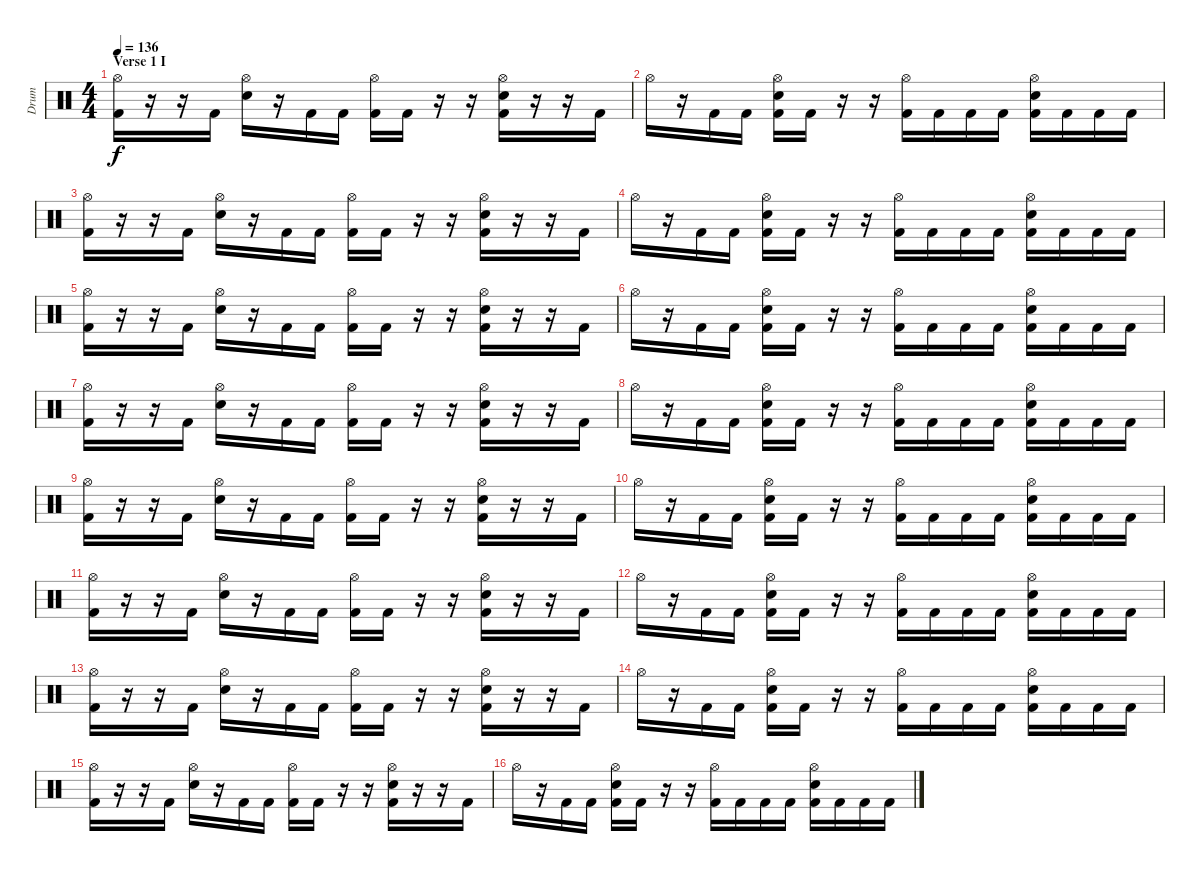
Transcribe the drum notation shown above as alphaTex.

\track ("Drum" "Drum") {instrument percussion}
\staff {score}
\articulation defaults
\ts (4 4)
\section ("" "Verse 1 I")
\tempo 136
\clef neutral
\ks c
("Hi-Hat (open)" "Kick (hit) 2").16{dy f} r.16 r.16 "Kick (hit) 2".16 ("Hi-Hat (open)" "Snare (hit) 2").16 r.16 "Kick (hit) 2".16 "Kick (hit) 2".16 ("Hi-Hat (open)" "Kick (hit) 2").16 "Kick (hit) 2".16 r.16 r.16 ("Hi-Hat (open)" "Snare (hit) 2" "Kick (hit) 2").16 r.16 r.16 "Kick (hit) 2".16 |
"Hi-Hat (open)".16 r.16 "Kick (hit) 2".16 "Kick (hit) 2".16 ("Hi-Hat (open)" "Snare (hit) 2" "Kick (hit) 2").16 "Kick (hit) 2".16 r.16 r.16 ("Hi-Hat (open)" "Kick (hit) 2").16 "Kick (hit) 2".16 "Kick (hit) 2".16 "Kick (hit) 2".16 ("Hi-Hat (open)" "Snare (hit) 2" "Kick (hit) 2").16 "Kick (hit) 2".16 "Kick (hit) 2".16 "Kick (hit) 2".16 |
("Hi-Hat (open)" "Kick (hit) 2").16 r.16 r.16 "Kick (hit) 2".16 ("Hi-Hat (open)" "Snare (hit) 2").16 r.16 "Kick (hit) 2".16 "Kick (hit) 2".16 ("Hi-Hat (open)" "Kick (hit) 2").16 "Kick (hit) 2".16 r.16 r.16 ("Hi-Hat (open)" "Snare (hit) 2" "Kick (hit) 2").16 r.16 r.16 "Kick (hit) 2".16 |
"Hi-Hat (open)".16 r.16 "Kick (hit) 2".16 "Kick (hit) 2".16 ("Hi-Hat (open)" "Snare (hit) 2" "Kick (hit) 2").16 "Kick (hit) 2".16 r.16 r.16 ("Hi-Hat (open)" "Kick (hit) 2").16 "Kick (hit) 2".16 "Kick (hit) 2".16 "Kick (hit) 2".16 ("Hi-Hat (open)" "Snare (hit) 2" "Kick (hit) 2").16 "Kick (hit) 2".16 "Kick (hit) 2".16 "Kick (hit) 2".16 |
("Hi-Hat (open)" "Kick (hit) 2").16 r.16 r.16 "Kick (hit) 2".16 ("Hi-Hat (open)" "Snare (hit) 2").16 r.16 "Kick (hit) 2".16 "Kick (hit) 2".16 ("Hi-Hat (open)" "Kick (hit) 2").16 "Kick (hit) 2".16 r.16 r.16 ("Hi-Hat (open)" "Snare (hit) 2" "Kick (hit) 2").16 r.16 r.16 "Kick (hit) 2".16 |
"Hi-Hat (open)".16 r.16 "Kick (hit) 2".16 "Kick (hit) 2".16 ("Hi-Hat (open)" "Snare (hit) 2" "Kick (hit) 2").16 "Kick (hit) 2".16 r.16 r.16 ("Hi-Hat (open)" "Kick (hit) 2").16 "Kick (hit) 2".16 "Kick (hit) 2".16 "Kick (hit) 2".16 ("Hi-Hat (open)" "Snare (hit) 2" "Kick (hit) 2").16 "Kick (hit) 2".16 "Kick (hit) 2".16 "Kick (hit) 2".16 |
("Hi-Hat (open)" "Kick (hit) 2").16 r.16 r.16 "Kick (hit) 2".16 ("Hi-Hat (open)" "Snare (hit) 2").16 r.16 "Kick (hit) 2".16 "Kick (hit) 2".16 ("Hi-Hat (open)" "Kick (hit) 2").16 "Kick (hit) 2".16 r.16 r.16 ("Hi-Hat (open)" "Snare (hit) 2" "Kick (hit) 2").16 r.16 r.16 "Kick (hit) 2".16 |
"Hi-Hat (open)".16 r.16 "Kick (hit) 2".16 "Kick (hit) 2".16 ("Hi-Hat (open)" "Snare (hit) 2" "Kick (hit) 2").16 "Kick (hit) 2".16 r.16 r.16 ("Hi-Hat (open)" "Kick (hit) 2").16 "Kick (hit) 2".16 "Kick (hit) 2".16 "Kick (hit) 2".16 ("Hi-Hat (open)" "Snare (hit) 2" "Kick (hit) 2").16 "Kick (hit) 2".16 "Kick (hit) 2".16 "Kick (hit) 2".16 |
("Hi-Hat (open)" "Kick (hit) 2").16 r.16 r.16 "Kick (hit) 2".16 ("Hi-Hat (open)" "Snare (hit) 2").16 r.16 "Kick (hit) 2".16 "Kick (hit) 2".16 ("Hi-Hat (open)" "Kick (hit) 2").16 "Kick (hit) 2".16 r.16 r.16 ("Hi-Hat (open)" "Snare (hit) 2" "Kick (hit) 2").16 r.16 r.16 "Kick (hit) 2".16 |
"Hi-Hat (open)".16 r.16 "Kick (hit) 2".16 "Kick (hit) 2".16 ("Hi-Hat (open)" "Snare (hit) 2" "Kick (hit) 2").16 "Kick (hit) 2".16 r.16 r.16 ("Hi-Hat (open)" "Kick (hit) 2").16 "Kick (hit) 2".16 "Kick (hit) 2".16 "Kick (hit) 2".16 ("Hi-Hat (open)" "Snare (hit) 2" "Kick (hit) 2").16 "Kick (hit) 2".16 "Kick (hit) 2".16 "Kick (hit) 2".16 |
("Hi-Hat (open)" "Kick (hit) 2").16 r.16 r.16 "Kick (hit) 2".16 ("Hi-Hat (open)" "Snare (hit) 2").16 r.16 "Kick (hit) 2".16 "Kick (hit) 2".16 ("Hi-Hat (open)" "Kick (hit) 2").16 "Kick (hit) 2".16 r.16 r.16 ("Hi-Hat (open)" "Snare (hit) 2" "Kick (hit) 2").16 r.16 r.16 "Kick (hit) 2".16 |
"Hi-Hat (open)".16 r.16 "Kick (hit) 2".16 "Kick (hit) 2".16 ("Hi-Hat (open)" "Snare (hit) 2" "Kick (hit) 2").16 "Kick (hit) 2".16 r.16 r.16 ("Hi-Hat (open)" "Kick (hit) 2").16 "Kick (hit) 2".16 "Kick (hit) 2".16 "Kick (hit) 2".16 ("Hi-Hat (open)" "Snare (hit) 2" "Kick (hit) 2").16 "Kick (hit) 2".16 "Kick (hit) 2".16 "Kick (hit) 2".16 |
("Hi-Hat (open)" "Kick (hit) 2").16 r.16 r.16 "Kick (hit) 2".16 ("Hi-Hat (open)" "Snare (hit) 2").16 r.16 "Kick (hit) 2".16 "Kick (hit) 2".16 ("Hi-Hat (open)" "Kick (hit) 2").16 "Kick (hit) 2".16 r.16 r.16 ("Hi-Hat (open)" "Snare (hit) 2" "Kick (hit) 2").16 r.16 r.16 "Kick (hit) 2".16 |
"Hi-Hat (open)".16 r.16 "Kick (hit) 2".16 "Kick (hit) 2".16 ("Hi-Hat (open)" "Snare (hit) 2" "Kick (hit) 2").16 "Kick (hit) 2".16 r.16 r.16 ("Hi-Hat (open)" "Kick (hit) 2").16 "Kick (hit) 2".16 "Kick (hit) 2".16 "Kick (hit) 2".16 ("Hi-Hat (open)" "Snare (hit) 2" "Kick (hit) 2").16 "Kick (hit) 2".16 "Kick (hit) 2".16 "Kick (hit) 2".16 |
("Hi-Hat (open)" "Kick (hit) 2").16 r.16 r.16 "Kick (hit) 2".16 ("Hi-Hat (open)" "Snare (hit) 2").16 r.16 "Kick (hit) 2".16 "Kick (hit) 2".16 ("Hi-Hat (open)" "Kick (hit) 2").16 "Kick (hit) 2".16 r.16 r.16 ("Hi-Hat (open)" "Snare (hit) 2" "Kick (hit) 2").16 r.16 r.16 "Kick (hit) 2".16 |
"Hi-Hat (open)".16 r.16 "Kick (hit) 2".16 "Kick (hit) 2".16 ("Hi-Hat (open)" "Snare (hit) 2" "Kick (hit) 2").16 "Kick (hit) 2".16 r.16 r.16 ("Hi-Hat (open)" "Kick (hit) 2").16 "Kick (hit) 2".16 "Kick (hit) 2".16 "Kick (hit) 2".16 ("Hi-Hat (open)" "Snare (hit) 2" "Kick (hit) 2").16 "Kick (hit) 2".16 "Kick (hit) 2".16 "Kick (hit) 2".16
